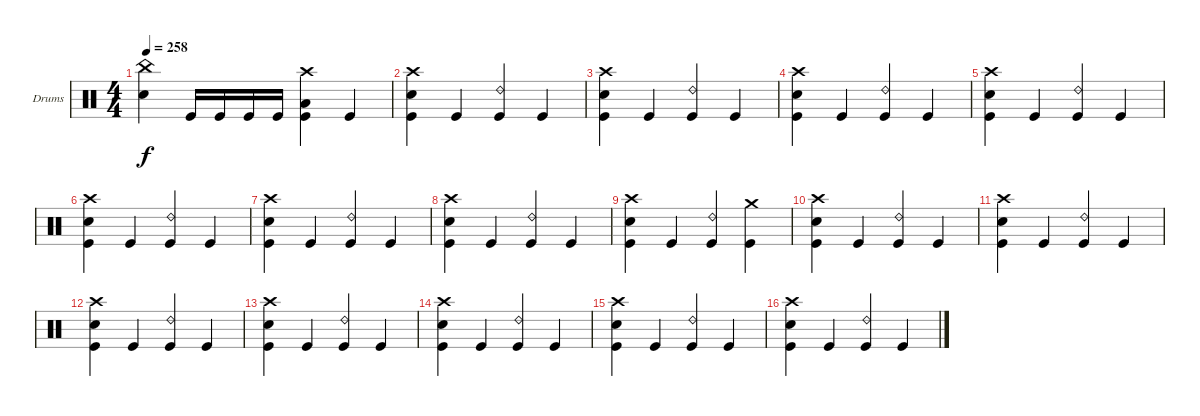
\defaultSystemsLayout 4
\bracketExtendMode groupsimilarinstruments
\firstSystemTrackNameOrientation horizontal
\otherSystemsTrackNameOrientation horizontal
\track ("Drumkit" "Drums") {instrument percussion}
\staff {score}
\articulation defaults
\ts (4 4)
\tempo 258
\clef neutral
\ks c
("Snare (hit) 2" "China (hit)").4{dy f} "Kick (hit)".16 "Kick (hit)".16 "Kick (hit)".16 "Kick (hit)".16 ("Low Tom (hit)" "Crash high (hit)" "Kick (hit)").4 "Kick (hit)".4 |
("Kick (hit)" "Crash high (hit)" "Snare (hit) 2").4 "Kick (hit)".4 ("Kick (hit)" "Ride (bell) 2").4 "Kick (hit)".4 |
("Kick (hit)" "Snare (hit) 2" "Crash high (hit)").4 "Kick (hit)".4 ("Kick (hit)" "Ride (bell) 2").4 "Kick (hit)".4 |
("Kick (hit)" "Crash high (hit)" "Snare (hit) 2").4 "Kick (hit)".4 ("Kick (hit)" "Ride (bell) 2").4 "Kick (hit)".4 |
("Kick (hit)" "Snare (hit) 2" "Crash high (hit)").4 "Kick (hit)".4 ("Kick (hit)" "Ride (bell) 2").4 "Kick (hit)".4 |
("Kick (hit)" "Crash high (hit)" "Snare (hit) 2").4 "Kick (hit)".4 ("Kick (hit)" "Ride (bell) 2").4 "Kick (hit)".4 |
("Kick (hit)" "Snare (hit) 2" "Crash high (hit)").4 "Kick (hit)".4 ("Kick (hit)" "Ride (bell) 2").4 "Kick (hit)".4 |
("Kick (hit)" "Crash high (hit)" "Snare (hit) 2").4 "Kick (hit)".4 ("Kick (hit)" "Ride (bell) 2").4 "Kick (hit)".4 |
("Kick (hit)" "Snare (hit) 2" "Crash high (hit)").4 "Kick (hit)".4 ("Kick (hit)" "Ride (bell) 2").4 ("Kick (hit)" "Crash medium (hit)").4 |
("Kick (hit)" "Crash high (hit)" "Snare (hit) 2").4 "Kick (hit)".4 ("Kick (hit)" "Ride (bell) 2").4 "Kick (hit)".4 |
("Kick (hit)" "Snare (hit) 2" "Crash high (hit)").4 "Kick (hit)".4 ("Kick (hit)" "Ride (bell) 2").4 "Kick (hit)".4 |
("Kick (hit)" "Crash high (hit)" "Snare (hit) 2").4 "Kick (hit)".4 ("Kick (hit)" "Ride (bell) 2").4 "Kick (hit)".4 |
("Kick (hit)" "Snare (hit) 2" "Crash high (hit)").4 "Kick (hit)".4 ("Kick (hit)" "Ride (bell) 2").4 "Kick (hit)".4 |
("Kick (hit)" "Crash high (hit)" "Snare (hit) 2").4 "Kick (hit)".4 ("Kick (hit)" "Ride (bell) 2").4 "Kick (hit)".4 |
("Kick (hit)" "Snare (hit) 2" "Crash high (hit)").4 "Kick (hit)".4 ("Kick (hit)" "Ride (bell) 2").4 "Kick (hit)".4 |
("Kick (hit)" "Crash high (hit)" "Snare (hit) 2").4 "Kick (hit)".4 ("Kick (hit)" "Ride (bell) 2").4 "Kick (hit)".4
